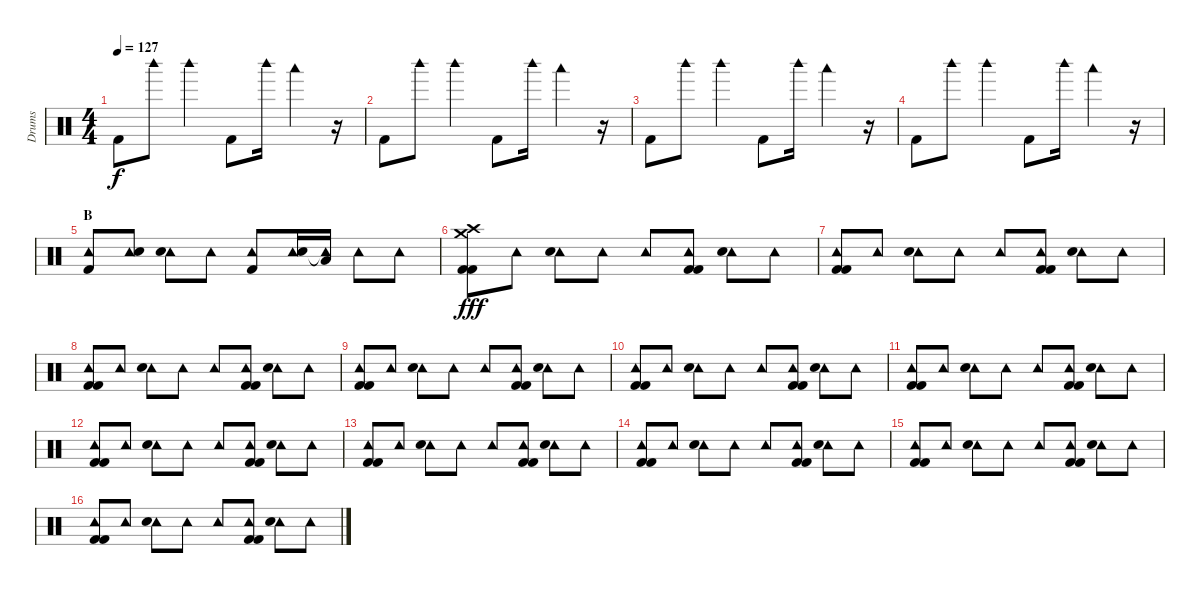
\track ("Drums" "Drums") {instrument percussion}
\staff {score}
\articulation defaults
\ts (4 4)
\tempo 127
\clef neutral
\ks c "Kick (hit) 2".8{dy f} "Woodblock high (hit)".8 "Woodblock high (hit)".4 "Kick (hit) 2".8 "Woodblock high (hit)".16 "Woodblock low (hit)".4
r.16 |
"Kick (hit) 2".8 "Woodblock high (hit)".8 "Woodblock high (hit)".4 "Kick (hit) 2".8 "Woodblock high (hit)".16 "Woodblock low (hit)".4 r.16 |
"Kick (hit) 2".8 "Woodblock high (hit)".8 "Woodblock high (hit)".4 "Kick (hit) 2".8 "Woodblock high (hit)".16 "Woodblock low (hit)".4 r.16 |
"Kick (hit) 2".8 "Woodblock high (hit)".8 "Woodblock high (hit)".4 "Kick (hit) 2".8 "Woodblock high (hit)".16 "Woodblock low (hit)".4 r.16 |
\section ("" "B")
("Tambourine (hit)" "Kick (hit) 2").8 ("Tambourine (hit)" "Electric Snare (hit)").8 ("Tambourine (hit)" "Electric Snare (hit)").8 "Tambourine (hit)".8 ("Tambourine (hit)" "Kick (hit) 2").8 ("Tambourine (hit)" "Electric Snare (hit)").16 ("Tambourine (hit)"{t} "Low Tom (hit)").16 "Tambourine (hit)".8 "Tambourine (hit)".8 |
("Crash medium (hit)" "Crash high (hit)" "Kick (hit) 2" "Kick (hit) 2").8{dy fff} "Tambourine (hit)".8 ("Tambourine (hit)" "Electric Snare (hit)").8 "Tambourine (hit)".8 "Tambourine (hit)".8 ("Tambourine (hit)" "Kick (hit) 2" "Kick (hit) 2").8 ("Tambourine (hit)" "Electric Snare (hit)").8 "Tambourine (hit)".8 |
("Tambourine (hit)" "Kick (hit) 2" "Kick (hit) 2").8 "Tambourine (hit)".8 ("Tambourine (hit)" "Electric Snare (hit)").8 "Tambourine (hit)".8 "Tambourine (hit)".8 ("Tambourine (hit)" "Kick (hit) 2" "Kick (hit) 2").8 ("Tambourine (hit)" "Electric Snare (hit)").8 "Tambourine (hit)".8 |
("Tambourine (hit)" "Kick (hit) 2" "Kick (hit) 2").8 "Tambourine (hit)".8 ("Tambourine (hit)" "Electric Snare (hit)").8 "Tambourine (hit)".8 "Tambourine (hit)".8 ("Tambourine (hit)" "Kick (hit) 2" "Kick (hit) 2").8 ("Tambourine (hit)" "Electric Snare (hit)").8 "Tambourine (hit)".8 |
("Tambourine (hit)" "Kick (hit) 2" "Kick (hit) 2").8 "Tambourine (hit)".8 ("Tambourine (hit)" "Electric Snare (hit)").8 "Tambourine (hit)".8 "Tambourine (hit)".8 ("Tambourine (hit)" "Kick (hit) 2" "Kick (hit) 2").8 ("Tambourine (hit)" "Electric Snare (hit)").8 "Tambourine (hit)".8 |
("Tambourine (hit)" "Kick (hit) 2" "Kick (hit) 2").8 "Tambourine (hit)".8 ("Tambourine (hit)" "Electric Snare (hit)").8 "Tambourine (hit)".8 "Tambourine (hit)".8 ("Tambourine (hit)" "Kick (hit) 2" "Kick (hit) 2").8 ("Tambourine (hit)" "Electric Snare (hit)").8 "Tambourine (hit)".8 |
("Tambourine (hit)" "Kick (hit) 2" "Kick (hit) 2").8 "Tambourine (hit)".8 ("Tambourine (hit)" "Electric Snare (hit)").8 "Tambourine (hit)".8 "Tambourine (hit)".8 ("Tambourine (hit)" "Kick (hit) 2" "Kick (hit) 2").8 ("Tambourine (hit)" "Electric Snare (hit)").8 "Tambourine (hit)".8 |
("Tambourine (hit)" "Kick (hit) 2" "Kick (hit) 2").8 "Tambourine (hit)".8 ("Tambourine (hit)" "Electric Snare (hit)").8 "Tambourine (hit)".8 "Tambourine (hit)".8 ("Tambourine (hit)" "Kick (hit) 2" "Kick (hit) 2").8 ("Tambourine (hit)" "Electric Snare (hit)").8 "Tambourine (hit)".8 |
("Tambourine (hit)" "Kick (hit) 2" "Kick (hit) 2").8 "Tambourine (hit)".8 ("Tambourine (hit)" "Electric Snare (hit)").8 "Tambourine (hit)".8 "Tambourine (hit)".8 ("Tambourine (hit)" "Kick (hit) 2" "Kick (hit) 2").8 ("Tambourine (hit)" "Electric Snare (hit)").8 "Tambourine (hit)".8 |
("Tambourine (hit)" "Kick (hit) 2" "Kick (hit) 2").8 "Tambourine (hit)".8 ("Tambourine (hit)" "Electric Snare (hit)").8 "Tambourine (hit)".8 "Tambourine (hit)".8 ("Tambourine (hit)" "Kick (hit) 2" "Kick (hit) 2").8 ("Tambourine (hit)" "Electric Snare (hit)").8 "Tambourine (hit)".8 |
("Tambourine (hit)" "Kick (hit) 2" "Kick (hit) 2").8 "Tambourine (hit)".8 ("Tambourine (hit)" "Electric Snare (hit)").8 "Tambourine (hit)".8 "Tambourine (hit)".8 ("Tambourine (hit)" "Kick (hit) 2" "Kick (hit) 2").8 ("Tambourine (hit)" "Electric Snare (hit)").8 "Tambourine (hit)".8 |
("Tambourine (hit)" "Kick (hit) 2" "Kick (hit) 2").8 "Tambourine (hit)".8 ("Tambourine (hit)" "Electric Snare (hit)").8 "Tambourine (hit)".8 "Tambourine (hit)".8 ("Tambourine (hit)" "Kick (hit) 2" "Kick (hit) 2").8 ("Tambourine (hit)" "Electric Snare (hit)").8 "Tambourine (hit)".8
